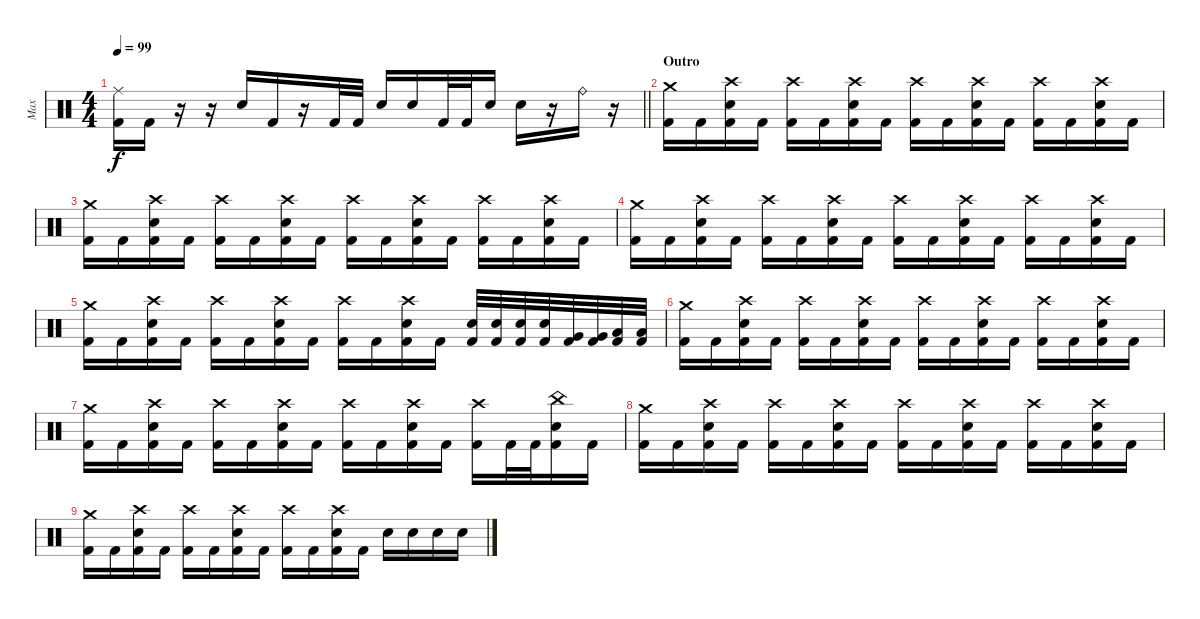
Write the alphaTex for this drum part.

\track ("Max" "Max") {instrument percussion}
\staff {score}
\articulation defaults
\ts (4 4)
\tempo 99
\clef neutral
\barLineRight lightlight
\ks c
("Ride (middle)" "Kick (hit) 2").16{dy f} "Kick (hit) 2".16 r.16 r.16 "Electric Snare (hit)".16 "Kick (hit) 2".16 r.16 "Kick (hit) 2".32 "Kick (hit) 2".32 "Electric Snare (hit)".16 "Electric Snare (hit)".16 "Kick (hit) 2".32 "Kick (hit) 2".32 "Electric Snare (hit)".16 "Electric Snare (hit)".16 r.16 "Ride (bell)".16 r.16 |
\section ("" "Outro")
("Crash medium (hit)" "Kick (hit) 2").16 "Kick (hit) 2".16 ("Crash high (hit)" "Electric Snare (hit)" "Kick (hit) 2").16 "Kick (hit) 2".16 ("Crash high (hit)" "Kick (hit) 2").16 "Kick (hit) 2".16 ("Crash high (hit)" "Electric Snare (hit)" "Kick (hit) 2").16 "Kick (hit) 2".16 ("Crash high (hit)" "Kick (hit) 2").16 "Kick (hit) 2".16 ("Crash high (hit)" "Electric Snare (hit)" "Kick (hit) 2").16 "Kick (hit) 2".16 ("Crash high (hit)" "Kick (hit) 2").16 "Kick (hit) 2".16 ("Crash high (hit)" "Electric Snare (hit)" "Kick (hit) 2").16 "Kick (hit) 2".16 |
("Crash medium (hit)" "Kick (hit) 2").16 "Kick (hit) 2".16 ("Crash high (hit)" "Electric Snare (hit)" "Kick (hit) 2").16 "Kick (hit) 2".16 ("Crash high (hit)" "Kick (hit) 2").16 "Kick (hit) 2".16 ("Crash high (hit)" "Electric Snare (hit)" "Kick (hit) 2").16 "Kick (hit) 2".16 ("Crash high (hit)" "Kick (hit) 2").16 "Kick (hit) 2".16 ("Crash high (hit)" "Electric Snare (hit)" "Kick (hit) 2").16 "Kick (hit) 2".16 ("Crash high (hit)" "Kick (hit) 2").16 "Kick (hit) 2".16 ("Crash high (hit)" "Electric Snare (hit)" "Kick (hit) 2").16 "Kick (hit) 2".16 |
("Crash medium (hit)" "Kick (hit) 2").16 "Kick (hit) 2".16 ("Crash high (hit)" "Electric Snare (hit)" "Kick (hit) 2").16 "Kick (hit) 2".16 ("Crash high (hit)" "Kick (hit) 2").16 "Kick (hit) 2".16 ("Crash high (hit)" "Electric Snare (hit)" "Kick (hit) 2").16 "Kick (hit) 2".16 ("Crash high (hit)" "Kick (hit) 2").16 "Kick (hit) 2".16 ("Crash high (hit)" "Electric Snare (hit)" "Kick (hit) 2").16 "Kick (hit) 2".16 ("Crash high (hit)" "Kick (hit) 2").16 "Kick (hit) 2".16 ("Crash high (hit)" "Electric Snare (hit)" "Kick (hit) 2").16 "Kick (hit) 2".16 |
("Crash medium (hit)" "Kick (hit) 2").16 "Kick (hit) 2".16 ("Crash high (hit)" "Electric Snare (hit)" "Kick (hit) 2").16 "Kick (hit) 2".16 ("Crash high (hit)" "Kick (hit) 2").16 "Kick (hit) 2".16 ("Crash high (hit)" "Electric Snare (hit)" "Kick (hit) 2").16 "Kick (hit) 2".16 ("Crash high (hit)" "Kick (hit) 2").16 "Kick (hit) 2".16 ("Crash high (hit)" "Electric Snare (hit)" "Kick (hit) 2").16 "Kick (hit) 2".16 ("Electric Snare (hit)" "Kick (hit) 2").32 ("Electric Snare (hit)" "Kick (hit) 2").32 ("Electric Snare (hit)" "Kick (hit) 2").32 ("Electric Snare (hit)" "Kick (hit) 2").32 ("Very Low Tom (hit)" "Kick (hit) 2").32 ("Very Low Tom (hit)" "Kick (hit) 2").32 ("Low Floor Tom (hit)" "Kick (hit) 2").32 ("Low Floor Tom (hit)" "Kick (hit) 2").32 |
("Crash medium (hit)" "Kick (hit) 2").16 "Kick (hit) 2".16 ("Crash high (hit)" "Electric Snare (hit)" "Kick (hit) 2").16 "Kick (hit) 2".16 ("Crash high (hit)" "Kick (hit) 2").16 "Kick (hit) 2".16 ("Crash high (hit)" "Electric Snare (hit)" "Kick (hit) 2").16 "Kick (hit) 2".16 ("Crash high (hit)" "Kick (hit) 2").16 "Kick (hit) 2".16 ("Crash high (hit)" "Electric Snare (hit)" "Kick (hit) 2").16 "Kick (hit) 2".16 ("Crash high (hit)" "Kick (hit) 2").16 "Kick (hit) 2".16 ("Crash high (hit)" "Electric Snare (hit)" "Kick (hit) 2").16 "Kick (hit) 2".16 |
("Crash medium (hit)" "Kick (hit) 2").16 "Kick (hit) 2".16 ("Crash high (hit)" "Electric Snare (hit)" "Kick (hit) 2").16 "Kick (hit) 2".16 ("Crash high (hit)" "Kick (hit) 2").16 "Kick (hit) 2".16 ("Crash high (hit)" "Electric Snare (hit)" "Kick (hit) 2").16 "Kick (hit) 2".16 ("Crash high (hit)" "Kick (hit) 2").16 "Kick (hit) 2".16 ("Crash high (hit)" "Electric Snare (hit)" "Kick (hit) 2").16 "Kick (hit) 2".16 ("Crash high (hit)" "Kick (hit) 2").16 "Kick (hit) 2".32 "Kick (hit) 2".32 ("China (hit)" "Electric Snare (hit)" "Kick (hit) 2").16 "Kick (hit) 2".16 |
("Crash medium (hit)" "Kick (hit) 2").16 "Kick (hit) 2".16 ("Crash high (hit)" "Electric Snare (hit)" "Kick (hit) 2").16 "Kick (hit) 2".16 ("Crash high (hit)" "Kick (hit) 2").16 "Kick (hit) 2".16 ("Crash high (hit)" "Electric Snare (hit)" "Kick (hit) 2").16 "Kick (hit) 2".16 ("Crash high (hit)" "Kick (hit) 2").16 "Kick (hit) 2".16 ("Crash high (hit)" "Electric Snare (hit)" "Kick (hit) 2").16 "Kick (hit) 2".16 ("Crash high (hit)" "Kick (hit) 2").16 "Kick (hit) 2".16 ("Crash high (hit)" "Electric Snare (hit)" "Kick (hit) 2").16 "Kick (hit) 2".16 |
("Crash medium (hit)" "Kick (hit) 2").16 "Kick (hit) 2".16 ("Crash high (hit)" "Electric Snare (hit)" "Kick (hit) 2").16 "Kick (hit) 2".16 ("Crash high (hit)" "Kick (hit) 2").16 "Kick (hit) 2".16 ("Crash high (hit)" "Electric Snare (hit)" "Kick (hit) 2").16 "Kick (hit) 2".16 ("Crash high (hit)" "Kick (hit) 2").16 "Kick (hit) 2".16 ("Crash high (hit)" "Electric Snare (hit)" "Kick (hit) 2").16 "Kick (hit) 2".16 "Electric Snare (hit)".16 "Electric Snare (hit)".16 "Electric Snare (hit)".16 "Electric Snare (hit)".16
